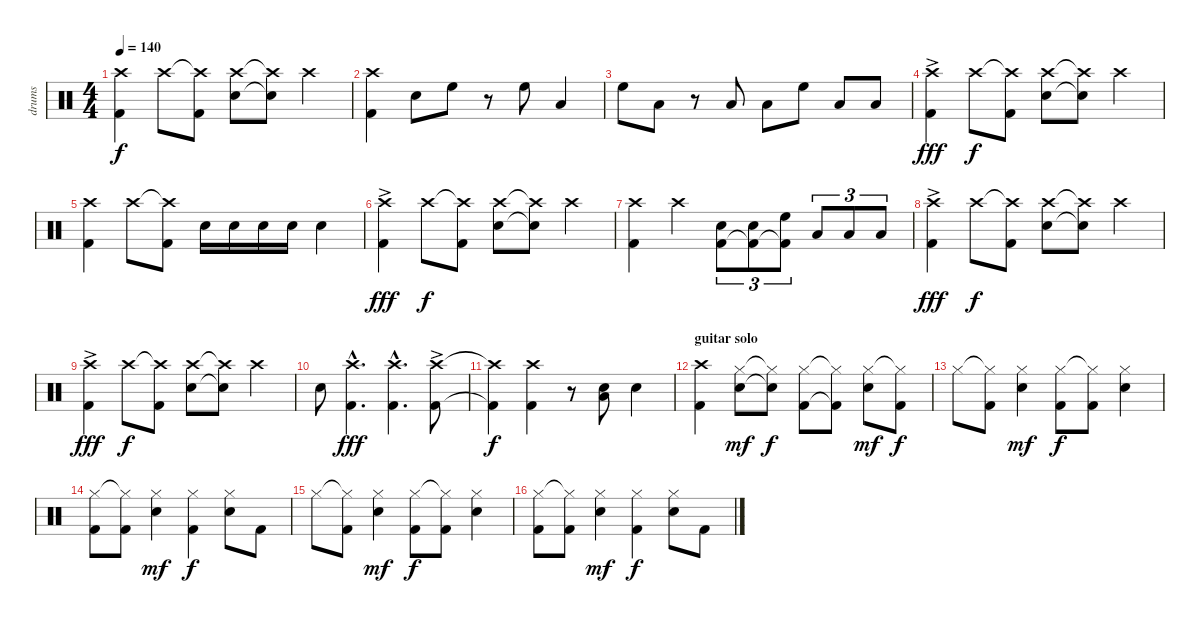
\track ("drums" "drums") {instrument percussion}
\staff {score}
\articulation defaults
\ts (4 4)
\tempo 140
\clef neutral
\ks c
("Crash high (hit)" "Kick (hit) 2").4{dy f} "Crash high (hit)".8 ("Crash high (hit)"{t} "Kick (hit) 2").8 ("Crash high (hit)" "Snare (hit) 2").8 ("Crash high (hit)"{t} "Snare (hit) 2"{t}).8 "Crash high (hit)".4 |
("Crash high (hit)" "Kick (hit) 2").4 "Snare (hit) 2".8 "High Floor Tom (hit)".8 r.8 "High Floor Tom (hit)".8 "Low Tom (hit)".4 |
"High Floor Tom (hit)".8 "Low Tom (hit)".8 r.8 "Low Tom (hit)".8 "Low Tom (hit)".8 "High Floor Tom (hit)".8 "Low Tom (hit)".8 "Low Tom (hit)".8 |
("Crash high (hit)"{ac} "Kick (hit) 2").4{dy fff} "Crash high (hit)".8{dy f} ("Crash high (hit)"{t} "Kick (hit) 2").8 ("Crash high (hit)" "Snare (hit) 2").8 ("Crash high (hit)"{t} "Snare (hit) 2"{t}).8 "Crash high (hit)".4 |
("Crash high (hit)" "Kick (hit) 2").4 "Crash high (hit)".8 ("Crash high (hit)"{t} "Kick (hit) 2").8 "Snare (hit) 2".16 "Snare (hit) 2".16 "Snare (hit) 2".16 "Snare (hit) 2".16 "Snare (hit) 2".4 |
("Crash high (hit)"{ac} "Kick (hit) 2").4{dy fff} "Crash high (hit)".8{dy f} ("Crash high (hit)"{t} "Kick (hit) 2").8 ("Crash high (hit)" "Snare (hit) 2").8 ("Crash high (hit)"{t} "Snare (hit) 2"{t}).8 "Crash high (hit)".4 |
("Crash high (hit)" "Kick (hit) 2").4 "Crash high (hit)".4 ("Snare (hit) 2" "Kick (hit) 2").8{tu (3 2)} ("Snare (hit) 2" "Kick (hit) 2"{t}).8{tu (3 2)} ("High Floor Tom (hit)" "Kick (hit) 2"{t}).8{tu (3 2)} "Low Tom (hit)".8{tu (3 2)} "Low Tom (hit)".8{tu (3 2)} "Low Tom (hit)".8{tu (3 2)} |
("Crash high (hit)"{ac} "Kick (hit) 2").4{dy fff} "Crash high (hit)".8{dy f} ("Crash high (hit)"{t} "Kick (hit) 2").8 ("Crash high (hit)" "Snare (hit) 2").8 ("Crash high (hit)"{t} "Snare (hit) 2"{t}).8 "Crash high (hit)".4 |
("Crash high (hit)"{ac} "Kick (hit) 2").4{dy fff} "Crash high (hit)".8{dy f} ("Crash high (hit)"{t} "Kick (hit) 2").8 ("Crash high (hit)" "Snare (hit) 2").8 ("Crash high (hit)"{t} "Snare (hit) 2"{t}).8 "Crash high (hit)".4 |
"Snare (hit) 2".8 ("Crash high (hit)"{hac} "Kick (hit) 2"{hac}).4{d dy fff} ("Crash high (hit)"{hac} "Kick (hit) 2"{hac}).4{d} ("Crash high (hit)"{ac} "Kick (hit) 2").8 |
("Crash high (hit)"{t} "Kick (hit) 2"{t}).4{dy f} ("Crash high (hit)" "Kick (hit) 2").4 r.8 ("Snare (hit) 2" "Low Tom (hit)").8 "Snare (hit) 2".4 |
\section ("" "guitar solo")
("Crash high (hit)" "Kick (hit) 2").4 ("Hi-Hat (closed)" "Snare (hit) 2").8{dy mf} ("Hi-Hat (closed)"{t} "Snare (hit) 2"{t}).8{dy f} ("Hi-Hat (closed)" "Kick (hit) 2").8 ("Hi-Hat (closed)"{t} "Kick (hit) 2"{t}).8 ("Hi-Hat (closed)" "Snare (hit) 2").8{dy mf} ("Hi-Hat (closed)"{t} "Kick (hit) 2").8{dy f} |
"Hi-Hat (closed)".8 ("Hi-Hat (closed)"{t} "Kick (hit) 2").8 ("Hi-Hat (closed)" "Snare (hit) 2").4{dy mf} ("Hi-Hat (closed)" "Kick (hit) 2").8{dy f} ("Hi-Hat (closed)"{t} "Kick (hit) 2").8 ("Hi-Hat (closed)" "Snare (hit) 2").4 |
("Hi-Hat (closed)" "Kick (hit) 2").8 ("Hi-Hat (closed)"{t} "Kick (hit) 2").8 ("Hi-Hat (closed)" "Snare (hit) 2").4{dy mf} ("Hi-Hat (closed)" "Kick (hit) 2").4{dy f} ("Hi-Hat (closed)" "Snare (hit) 2").8 "Kick (hit) 2".8 |
"Hi-Hat (closed)".8 ("Hi-Hat (closed)"{t} "Kick (hit) 2").8 ("Hi-Hat (closed)" "Snare (hit) 2").4{dy mf} ("Hi-Hat (closed)" "Kick (hit) 2").8{dy f} ("Hi-Hat (closed)"{t} "Kick (hit) 2").8 ("Hi-Hat (closed)" "Snare (hit) 2").4 |
("Hi-Hat (closed)" "Kick (hit) 2").8 ("Hi-Hat (closed)"{t} "Kick (hit) 2").8 ("Hi-Hat (closed)" "Snare (hit) 2").4{dy mf} ("Hi-Hat (closed)" "Kick (hit) 2").4{dy f} ("Hi-Hat (closed)" "Snare (hit) 2").8 "Kick (hit) 2".8
